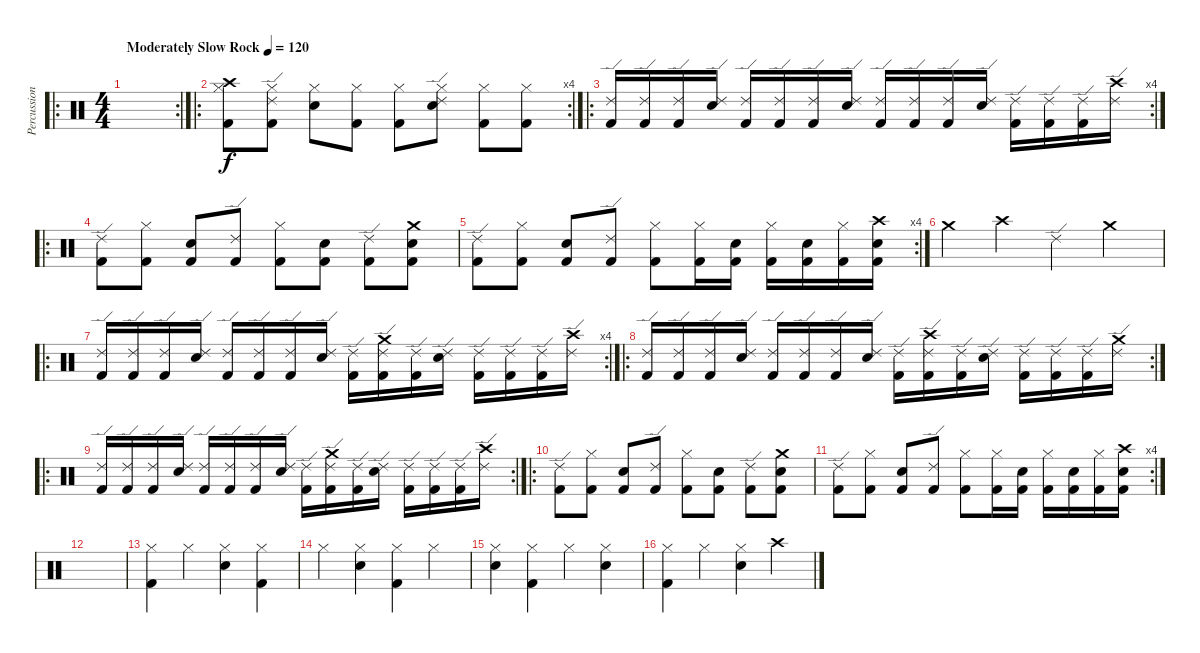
\track ("Percussion" "Percussion") {instrument percussion}
\staff {score}
\articulation defaults
\ro
\rc 2
\ts (4 4)
\tempo (120 "Moderately Slow Rock")
\clef neutral
\ks c
|
\ro
\rc 4
("Crash high (hit)" "Hi-Hat (closed)" "Kick (hit) 2").8 ("Ride (edge) 2" "Hi-Hat (closed)" "Kick (hit) 2").8 ("Hi-Hat (closed)" "Electric Snare (hit)").8 ("Hi-Hat (closed)" "Kick (hit) 2").8 ("Hi-Hat (closed)" "Kick (hit) 2").8 ("Ride (edge) 2" "Hi-Hat (closed)" "Electric Snare (hit)").8 ("Hi-Hat (closed)" "Kick (hit) 2").8 ("Hi-Hat (closed)" "Kick (hit) 2").8 |
\ro
\rc 4
("Ride (edge) 2" "Kick (hit) 2").16 ("Ride (edge) 2" "Kick (hit) 2").16 ("Ride (edge) 2" "Kick (hit) 2").16 ("Electric Snare (hit)" "Ride (edge) 2").16 ("Ride (edge) 2" "Kick (hit) 2").16 ("Ride (edge) 2" "Kick (hit) 2").16 ("Ride (edge) 2" "Kick (hit) 2").16 ("Electric Snare (hit)" "Ride (edge) 2").16 ("Ride (edge) 2" "Kick (hit) 2").16 ("Ride (edge) 2" "Kick (hit) 2").16 ("Ride (edge) 2" "Kick (hit) 2").16 ("Electric Snare (hit)" "Ride (edge) 2").16 ("Ride (edge) 2" "Kick (hit) 2").16 ("Ride (edge) 2" "Kick (hit) 2").16 ("Ride (edge) 2" "Kick (hit) 2").16 ("Crash high (hit)" "Ride (edge) 2").16 |
\ro
("Ride (edge) 2" "Kick (hit) 2").8 ("Hi-Hat (closed)" "Kick (hit) 2").8 ("Electric Snare (hit)" "Kick (hit) 2").8 ("Ride (edge) 2" "Kick (hit) 2").8 ("Hi-Hat (closed)" "Kick (hit) 2").8 ("Electric Snare (hit)" "Kick (hit) 2").8 ("Ride (edge) 2" "Kick (hit) 2").8 ("Crash medium (hit)" "Electric Snare (hit)" "Kick (hit) 2").8 |
\rc 4
("Ride (edge) 2" "Kick (hit) 2").8 ("Hi-Hat (closed)" "Kick (hit) 2").8 ("Electric Snare (hit)" "Kick (hit) 2").8 ("Ride (edge) 2" "Kick (hit) 2").8 ("Hi-Hat (closed)" "Kick (hit) 2").8 ("Hi-Hat (closed)" "Kick (hit) 2").16 ("Electric Snare (hit)" "Kick (hit) 2").16 ("Hi-Hat (closed)" "Kick (hit) 2").16 ("Electric Snare (hit)" "Kick (hit) 2").16 ("Hi-Hat (closed)" "Kick (hit) 2").16 ("Crash high (hit)" "Electric Snare (hit)" "Kick (hit) 2").16 |
"Crash medium (hit)".4 "Crash high (hit)".4 "Ride (edge) 2".4 "Crash medium (hit)".4 |
\ro
\rc 4
("Ride (edge) 2" "Kick (hit) 2").16 ("Ride (edge) 2" "Kick (hit) 2").16 ("Ride (edge) 2" "Kick (hit) 2").16 ("Electric Snare (hit)" "Ride (edge) 2").16 ("Ride (edge) 2" "Kick (hit) 2").16 ("Ride (edge) 2" "Kick (hit) 2").16 ("Ride (edge) 2" "Kick (hit) 2").16 ("Electric Snare (hit)" "Ride (edge) 2").16 ("Ride (edge) 2" "Kick (hit) 2").16 ("Crash medium (hit)" "Ride (edge) 2" "Kick (hit) 2").16 ("Ride (edge) 2" "Kick (hit) 2").16 ("Electric Snare (hit)" "Ride (edge) 2").16 ("Ride (edge) 2" "Kick (hit) 2").16 ("Ride (edge) 2" "Kick (hit) 2").16 ("Ride (edge) 2" "Kick (hit) 2").16 ("Crash high (hit)" "Ride (edge) 2").16 |
\ro
\rc 2
("Ride (edge) 2" "Kick (hit) 2").16 ("Ride (edge) 2" "Kick (hit) 2").16 ("Ride (edge) 2" "Kick (hit) 2").16 ("Electric Snare (hit)" "Ride (edge) 2").16 ("Ride (edge) 2" "Kick (hit) 2").16 ("Ride (edge) 2" "Kick (hit) 2").16 ("Ride (edge) 2" "Kick (hit) 2").16 ("Electric Snare (hit)" "Ride (edge) 2").16 ("Ride (edge) 2" "Kick (hit) 2").16 ("Crash high (hit)" "Ride (edge) 2" "Kick (hit) 2").16 ("Ride (edge) 2" "Kick (hit) 2").16 ("Electric Snare (hit)" "Ride (edge) 2").16 ("Ride (edge) 2" "Kick (hit) 2").16 ("Ride (edge) 2" "Kick (hit) 2").16 ("Ride (edge) 2" "Kick (hit) 2").16 ("Crash medium (hit)" "Ride (edge) 2").16 |
\ro
\rc 2
("Ride (edge) 2" "Kick (hit) 2").16 ("Ride (edge) 2" "Kick (hit) 2").16 ("Ride (edge) 2" "Kick (hit) 2").16 ("Electric Snare (hit)" "Ride (edge) 2").16 ("Ride (edge) 2" "Kick (hit) 2").16 ("Ride (edge) 2" "Kick (hit) 2").16 ("Ride (edge) 2" "Kick (hit) 2").16 ("Electric Snare (hit)" "Ride (edge) 2").16 ("Ride (edge) 2" "Kick (hit) 2").16 ("Crash medium (hit)" "Ride (edge) 2" "Kick (hit) 2").16 ("Ride (edge) 2" "Kick (hit) 2").16 ("Electric Snare (hit)" "Ride (edge) 2").16 ("Ride (edge) 2" "Kick (hit) 2").16 ("Ride (edge) 2" "Kick (hit) 2").16 ("Ride (edge) 2" "Kick (hit) 2").16 ("Crash high (hit)" "Ride (edge) 2").16 |
\ro
("Ride (edge) 2" "Kick (hit) 2").8 ("Hi-Hat (closed)" "Kick (hit) 2").8 ("Electric Snare (hit)" "Kick (hit) 2").8 ("Ride (edge) 2" "Kick (hit) 2").8 ("Hi-Hat (closed)" "Kick (hit) 2").8 ("Electric Snare (hit)" "Kick (hit) 2").8 ("Ride (edge) 2" "Kick (hit) 2").8 ("Crash medium (hit)" "Electric Snare (hit)" "Kick (hit) 2").8 |
\rc 4
("Ride (edge) 2" "Kick (hit) 2").8 ("Hi-Hat (closed)" "Kick (hit) 2").8 ("Electric Snare (hit)" "Kick (hit) 2").8 ("Ride (edge) 2" "Kick (hit) 2").8 ("Hi-Hat (closed)" "Kick (hit) 2").8 ("Hi-Hat (closed)" "Kick (hit) 2").16 ("Electric Snare (hit)" "Kick (hit) 2").16 ("Hi-Hat (closed)" "Kick (hit) 2").16 ("Electric Snare (hit)" "Kick (hit) 2").16 ("Hi-Hat (closed)" "Kick (hit) 2").16 ("Crash high (hit)" "Electric Snare (hit)" "Kick (hit) 2").16 |
|
("Hi-Hat (closed)" "Kick (hit) 2").4 "Hi-Hat (closed)".4 ("Hi-Hat (closed)" "Electric Snare (hit)").4 ("Hi-Hat (closed)" "Kick (hit) 2").4 |
"Hi-Hat (closed)".4 ("Hi-Hat (closed)" "Electric Snare (hit)").4 ("Hi-Hat (closed)" "Kick (hit) 2").4 "Hi-Hat (closed)".4 |
("Hi-Hat (closed)" "Electric Snare (hit)").4 ("Hi-Hat (closed)" "Kick (hit) 2").4 "Hi-Hat (closed)".4 ("Hi-Hat (closed)" "Electric Snare (hit)").4 |
("Hi-Hat (closed)" "Kick (hit) 2").4 "Hi-Hat (closed)".4 ("Hi-Hat (closed)" "Electric Snare (hit)").4 "Crash high (hit)".4
